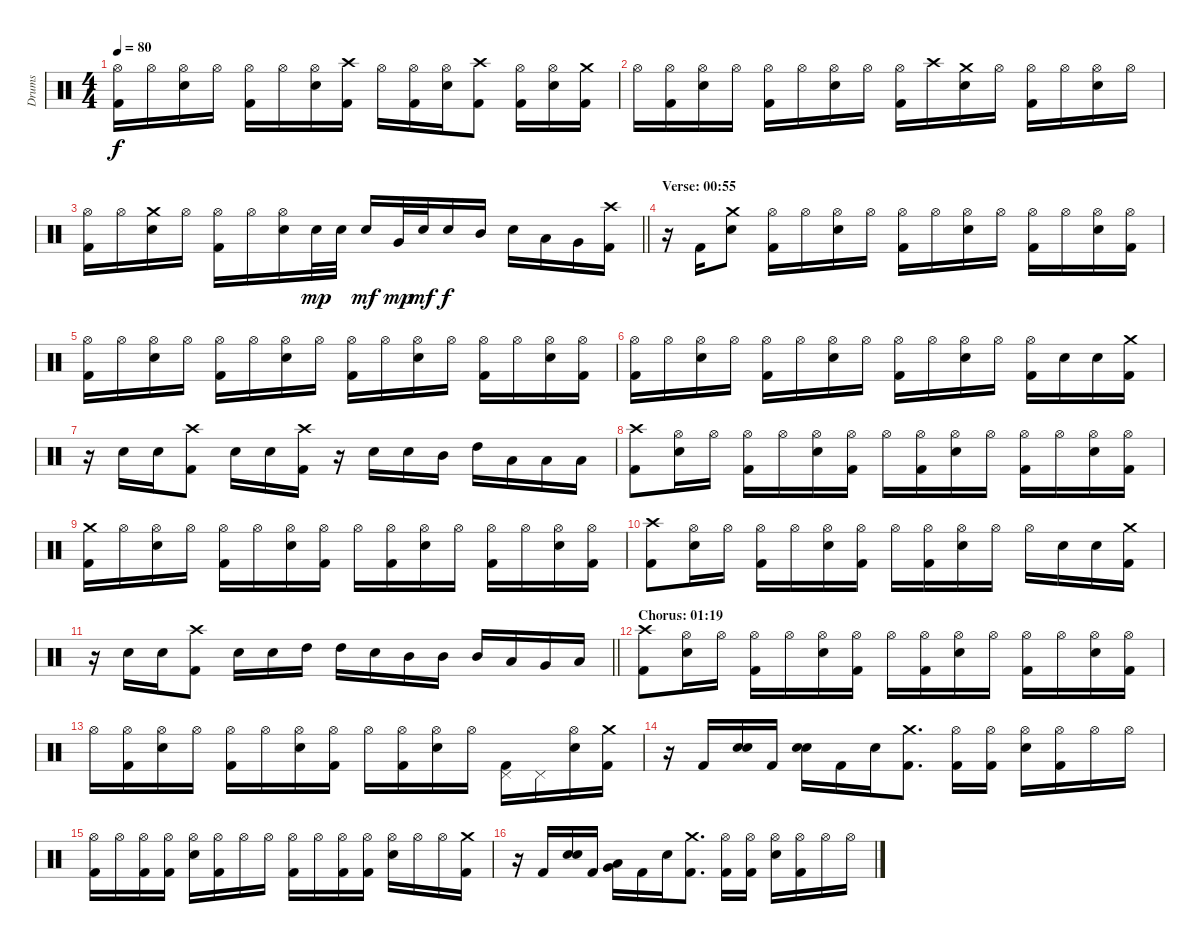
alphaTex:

\track ("Drums" "Drums") {instrument percussion}
\staff {score}
\articulation defaults
\ts (4 4)
\tempo 80
\clef neutral
\ks c
("Hi-Hat (open)" "Kick (hit) 2").16{dy f} "Hi-Hat (open)".16 ("Hi-Hat (open)" "Electric Snare (hit)").16 "Hi-Hat (open)".16 ("Hi-Hat (open)" "Kick (hit) 2").16 "Hi-Hat (open)".16 ("Hi-Hat (open)" "Electric Snare (hit)").16 ("Crash high (hit)" "Kick (hit) 2").16 "Hi-Hat (open)".16 ("Hi-Hat (open)" "Kick (hit) 2").16 ("Hi-Hat (open)" "Electric Snare (hit)").16 ("Crash high (hit)" "Kick (hit) 2").8 ("Hi-Hat (open)" "Kick (hit) 2").16 ("Hi-Hat (open)" "Electric Snare (hit)").16 ("Crash medium (hit)" "Kick (hit) 2").16 |
"Hi-Hat (open)".16 ("Hi-Hat (open)" "Kick (hit) 2").16 ("Hi-Hat (open)" "Electric Snare (hit)").16 "Hi-Hat (open)".16 ("Hi-Hat (open)" "Kick (hit) 2").16 "Hi-Hat (open)".16 ("Hi-Hat (open)" "Electric Snare (hit)").16 "Hi-Hat (open)".16 ("Hi-Hat (open)" "Kick (hit) 2").16 "Crash high (hit)".16 ("Crash medium (hit)" "Electric Snare (hit)").16 "Hi-Hat (open)".16 ("Hi-Hat (open)" "Kick (hit) 2").16 "Hi-Hat (open)".16 ("Hi-Hat (open)" "Electric Snare (hit)").16 "Hi-Hat (open)".16 |
\barLineRight lightlight
("Hi-Hat (open)" "Kick (hit) 2").16 "Hi-Hat (open)".16 ("Crash medium (hit)" "Electric Snare (hit)").16 "Hi-Hat (open)".16 ("Hi-Hat (open)" "Kick (hit) 2").16 "Hi-Hat (open)".16 ("Hi-Hat (open)" "Electric Snare (hit)").16 "Electric Snare (hit)".32{dy mp} "Electric Snare (hit)".32 "Electric Snare (hit)".16{dy mf} "Very Low Tom (hit)".32{dy mp} "Electric Snare (hit)".32{dy mf} "Electric Snare (hit)".16{dy f} "Mid Tom (hit)".16 "Electric Snare (hit)".16 "Low Tom (hit)".16 "Very Low Tom (hit)".16 ("Crash high (hit)" "Kick (hit) 2").16 |
\section ("" "Verse: 00:55")
r.16 "Kick (hit) 2".16 ("Crash medium (hit)" "Electric Snare (hit)").8 ("Hi-Hat (open)" "Kick (hit) 2").16 "Hi-Hat (open)".16 ("Hi-Hat (open)" "Electric Snare (hit)").16 "Hi-Hat (open)".16 ("Hi-Hat (open)" "Kick (hit) 2").16 "Hi-Hat (open)".16 ("Hi-Hat (open)" "Electric Snare (hit)").16 "Hi-Hat (open)".16 ("Hi-Hat (open)" "Kick (hit) 2").16 "Hi-Hat (open)".16 ("Hi-Hat (open)" "Electric Snare (hit)").16 ("Hi-Hat (open)" "Kick (hit) 2").16 |
("Hi-Hat (open)" "Kick (hit) 2").16 "Hi-Hat (open)".16 ("Hi-Hat (open)" "Electric Snare (hit)").16 "Hi-Hat (open)".16 ("Hi-Hat (open)" "Kick (hit) 2").16 "Hi-Hat (open)".16 ("Hi-Hat (open)" "Electric Snare (hit)").16 "Hi-Hat (open)".16 ("Hi-Hat (open)" "Kick (hit) 2").16 "Hi-Hat (open)".16 ("Hi-Hat (open)" "Electric Snare (hit)").16 "Hi-Hat (open)".16 ("Hi-Hat (open)" "Kick (hit) 2").16 "Hi-Hat (open)".16 ("Hi-Hat (open)" "Electric Snare (hit)").16 ("Hi-Hat (open)" "Kick (hit) 2").16 |
("Hi-Hat (open)" "Kick (hit) 2").16 "Hi-Hat (open)".16 ("Hi-Hat (open)" "Electric Snare (hit)").16 "Hi-Hat (open)".16 ("Hi-Hat (open)" "Kick (hit) 2").16 "Hi-Hat (open)".16 ("Hi-Hat (open)" "Electric Snare (hit)").16 "Hi-Hat (open)".16 ("Hi-Hat (open)" "Kick (hit) 2").16 "Hi-Hat (open)".16 ("Hi-Hat (open)" "Electric Snare (hit)").16 "Hi-Hat (open)".16 ("Hi-Hat (open)" "Kick (hit) 2").16 "Electric Snare (hit)".16 "Electric Snare (hit)".16 ("Crash medium (hit)" "Kick (hit) 2").16 |
r.16 "Electric Snare (hit)".16 "Electric Snare (hit)".16 ("Crash high (hit)" "Kick (hit) 2").8 "Electric Snare (hit)".16 "Electric Snare (hit)".16 ("Crash high (hit)" "Kick (hit) 2").16 r.16 "Electric Snare (hit)".16 "Electric Snare (hit)".16 "Mid Tom (hit)".16 "High Tom (hit)".16 "Low Tom (hit)".16 "Low Floor Tom (hit)".16 "Low Floor Tom (hit)".16 |
("Crash high (hit)" "Kick (hit) 2").8 ("Hi-Hat (open)" "Electric Snare (hit)").16 "Hi-Hat (open)".16 ("Hi-Hat (open)" "Kick (hit) 2").16 "Hi-Hat (open)".16 ("Hi-Hat (open)" "Electric Snare (hit)").16 ("Hi-Hat (open)" "Kick (hit) 2").16 "Hi-Hat (open)".16 ("Hi-Hat (open)" "Kick (hit) 2").16 ("Hi-Hat (open)" "Electric Snare (hit)").16 "Hi-Hat (open)".16 ("Hi-Hat (open)" "Kick (hit) 2").16 "Hi-Hat (open)".16 ("Hi-Hat (open)" "Electric Snare (hit)").16 ("Hi-Hat (open)" "Kick (hit) 2").16 |
("Crash medium (hit)" "Kick (hit) 2").16 "Hi-Hat (open)".16 ("Hi-Hat (open)" "Electric Snare (hit)").16 "Hi-Hat (open)".16 ("Hi-Hat (open)" "Kick (hit) 2").16 "Hi-Hat (open)".16 ("Hi-Hat (open)" "Electric Snare (hit)").16 ("Hi-Hat (open)" "Kick (hit) 2").16 "Hi-Hat (open)".16 ("Hi-Hat (open)" "Kick (hit) 2").16 ("Hi-Hat (open)" "Electric Snare (hit)").16 "Hi-Hat (open)".16 ("Hi-Hat (open)" "Kick (hit) 2").16 "Hi-Hat (open)".16 ("Hi-Hat (open)" "Electric Snare (hit)").16 ("Hi-Hat (open)" "Kick (hit) 2").16 |
("Crash high (hit)" "Kick (hit) 2").8 ("Hi-Hat (open)" "Electric Snare (hit)").16 "Hi-Hat (open)".16 ("Hi-Hat (open)" "Kick (hit) 2").16 "Hi-Hat (open)".16 ("Hi-Hat (open)" "Electric Snare (hit)").16 ("Hi-Hat (open)" "Kick (hit) 2").16 "Hi-Hat (open)".16 ("Hi-Hat (open)" "Kick (hit) 2").16 ("Hi-Hat (open)" "Electric Snare (hit)").16 "Hi-Hat (open)".16 "Hi-Hat (open)".16 "Electric Snare (hit)".16 "Electric Snare (hit)".16 ("Crash medium (hit)" "Kick (hit) 2").16 |
\barLineRight lightlight
r.16 "Electric Snare (hit)".16 "Electric Snare (hit)".16 ("Crash high (hit)" "Kick (hit) 2").8 "Electric Snare (hit)".16 "Electric Snare (hit)".16 "High Tom (hit)".16 "High Tom (hit)".16 "Electric Snare (hit)".16 "Mid Tom (hit)".16 "Mid Tom (hit)".16 "Mid Tom (hit)".16 "Low Tom (hit)".16 "Very Low Tom (hit)".16 "Low Floor Tom (hit)".16 |
\section ("" "Chorus: 01:19")
("Crash high (hit)" "Kick (hit) 2").8 ("Hi-Hat (open)" "Electric Snare (hit)").16 "Hi-Hat (open)".16 ("Hi-Hat (open)" "Kick (hit) 2").16 "Hi-Hat (open)".16 ("Hi-Hat (open)" "Electric Snare (hit)").16 ("Hi-Hat (open)" "Kick (hit) 2").16 "Hi-Hat (open)".16 ("Hi-Hat (open)" "Kick (hit) 2").16 ("Hi-Hat (open)" "Electric Snare (hit)").16 "Hi-Hat (open)".16 ("Hi-Hat (open)" "Kick (hit) 2").16 "Hi-Hat (open)".16 ("Hi-Hat (open)" "Electric Snare (hit)").16 ("Hi-Hat (open)" "Kick (hit) 2").16 |
"Hi-Hat (open)".16 ("Hi-Hat (open)" "Kick (hit) 2").16 ("Hi-Hat (open)" "Electric Snare (hit)").16 "Hi-Hat (open)".16 ("Hi-Hat (open)" "Kick (hit) 2").16 "Hi-Hat (open)".16 ("Hi-Hat (open)" "Electric Snare (hit)").16 ("Hi-Hat (open)" "Kick (hit) 2").16 "Hi-Hat (open)".16 ("Hi-Hat (open)" "Kick (hit) 2").16 ("Hi-Hat (open)" "Electric Snare (hit)").16 "Hi-Hat (open)".16 ("Pedal Hi-Hat (hit)" "Kick (hit) 2").16 "Pedal Hi-Hat (hit)".16 ("Hi-Hat (open)" "Electric Snare (hit)").16 ("Crash medium (hit)" "Kick (hit) 2").16 |
r.16 "Kick (hit) 2".16 ("Electric Snare (hit)" "Electric Snare (hit)").16{bd 120} "Kick (hit) 2".16 ("Electric Snare (hit)" "Electric Snare (hit)").16{bd 120} "Kick (hit) 2".16 "Electric Snare (hit)".16 ("Crash medium (hit)" "Kick (hit) 2").8{d} ("Hi-Hat (open)" "Kick (hit) 2").16 ("Hi-Hat (open)" "Kick (hit) 2").16 ("Hi-Hat (open)" "Electric Snare (hit)").16 ("Hi-Hat (open)" "Kick (hit) 2").16 "Hi-Hat (open)".16 "Hi-Hat (open)".16 |
("Hi-Hat (open)" "Kick (hit) 2").16 "Hi-Hat (open)".16 ("Hi-Hat (open)" "Kick (hit) 2").16 ("Hi-Hat (open)" "Kick (hit) 2").16 ("Hi-Hat (open)" "Electric Snare (hit)").16 ("Hi-Hat (open)" "Kick (hit) 2").16 "Hi-Hat (open)".16 "Hi-Hat (open)".16 ("Hi-Hat (open)" "Kick (hit) 2").16 "Hi-Hat (open)".16 ("Hi-Hat (open)" "Kick (hit) 2").16 ("Hi-Hat (open)" "Kick (hit) 2").16 ("Hi-Hat (open)" "Electric Snare (hit)").16 "Hi-Hat (open)".16 "Hi-Hat (open)".16 ("Crash medium (hit)" "Kick (hit) 2").16 |
r.16 "Kick (hit) 2".16 ("Electric Snare (hit)" "Electric Snare (hit)").16{bd 120} "Kick (hit) 2".16 ("Very Low Tom (hit)" "Low Floor Tom (hit)").16{bd 120} "Kick (hit) 2".16 "Electric Snare (hit)".16 ("Crash medium (hit)" "Kick (hit) 2").8{d} ("Hi-Hat (open)" "Kick (hit) 2").16 ("Hi-Hat (open)" "Kick (hit) 2").16 ("Hi-Hat (open)" "Electric Snare (hit)").16 ("Hi-Hat (open)" "Kick (hit) 2").16 "Hi-Hat (open)".16 "Hi-Hat (open)".16
